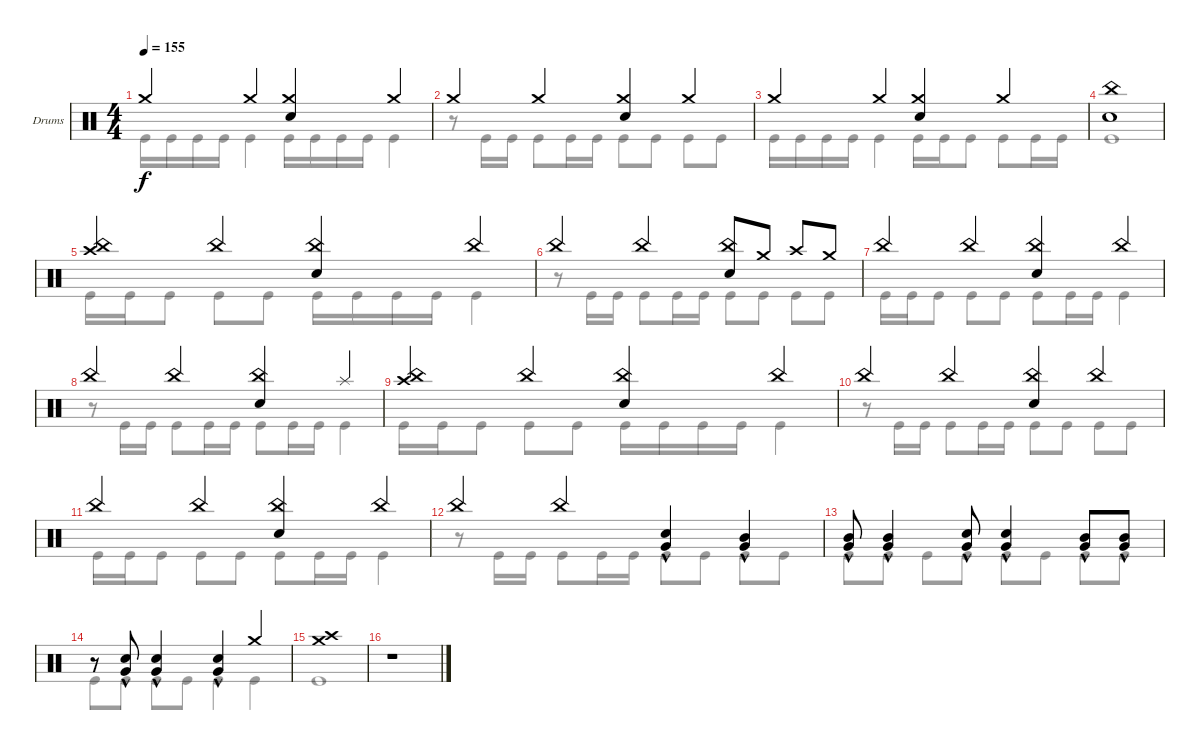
\defaultSystemsLayout 4
\bracketExtendMode groupsimilarinstruments
\firstSystemTrackNameOrientation horizontal
\otherSystemsTrackNameOrientation horizontal
\track ("Drumkit" "Drums") {instrument percussion}
\staff {score}
\articulation defaults
\voice
\ts (4 4)
\tempo 155
\clef neutral
\scale
1.02648
\ks c "Crash medium (hit)".4{dy f} "Crash medium (hit)".4
("Snare (hit) 2" "Crash medium (hit)").4 "Crash medium (hit)".4 |
\scale
0.973518 "Crash medium (hit)".4 "Crash medium (hit)".4 ("Snare (hit) 2" "Crash medium (hit)").4 "Crash medium (hit)".4 |
\scale
1.02648 "Crash medium (hit)".4 "Crash medium (hit)".4 ("Snare (hit) 2" "Crash medium (hit)").4 "Crash medium (hit)".4 |
\scale
0.973518 ("Snare (hit) 2" "China (hit)").1 |
\scale
1.02648 ("Crash high (hit)" "China (hit)").4 "China (hit)".4 ("China (hit)" "Snare (hit) 2").4 "China (hit)".4 |
\scale
0.973518 "China (hit)".4 "China (hit)".4 ("China (hit)" "Snare (hit) 2").8 "Crash medium (hit)".8 "Crash high (hit)".8 "Crash medium (hit)".8 |
\scale
1.02648 "China (hit)".4 "China (hit)".4 ("China (hit)" "Snare (hit) 2").4 "China (hit)".4 |
\scale
0.973518 "China (hit)".4 "China (hit)".4 ("China (hit)" "Snare (hit) 2").4 "Splash (hit)".4 |
\scale
1.02648 ("China (hit)" "Crash high (hit)").4 "China (hit)".4 ("China (hit)" "Snare (hit) 2").4 "China (hit)".4 |
\scale
0.973518 "China (hit)".4 "China (hit)".4 ("China (hit)" "Snare (hit) 2").4 "China (hit)".4 |
\scale
1.02648 "China (hit)".4 "China (hit)".4 ("China (hit)" "Snare (hit) 2").4 "China (hit)".4 |
\scale
0.973518 "China (hit)".4 "China (hit)".4 ("Snare (hit) 2" "Very Low Tom (hit)"{hac}).4 ("Mid Tom (hit)"{hac} "Very Low Tom (hit)"{hac}).4 |
\scale
1.02648 ("Mid Tom (hit)"{hac} "Very Low Tom (hit)"{hac}).8 ("Very Low Tom (hit)"{hac} "Mid Tom (hit)"{hac}).4 ("Snare (hit) 2" "Very Low Tom (hit)"{hac}).8 ("Snare (hit) 2" "Very Low Tom (hit)"{hac}).4 ("Mid Tom (hit)"{hac} "Very Low Tom (hit)"{hac}).8 ("Mid Tom (hit)"{hac} "Very Low Tom (hit)"{hac}).8 |
\scale
0.973518 r.8 ("Snare (hit) 2" "Very Low Tom (hit)"{hac}).8 ("Snare (hit) 2" "Very Low Tom (hit)"{hac}).4 ("Snare (hit) 2" "Very Low Tom (hit)"{hac}).4 "Crash medium (hit)".4 |
\scale
1.02648 ("Crash medium (hit)" "Crash high (hit)").1 |
\scale
0.973518 r.1
\voice
\clef neutral
\ottava regular
\simile none
\scale
1.02648
\ks c "Kick (hit)".16{dy f} "Kick (hit)".16 "Kick (hit)".16 "Kick (hit)".16 "Kick (hit)".4 "Kick (hit)".16 "Kick (hit)".16 "Kick (hit)".16 "Kick (hit)".16 "Kick (hit)".4
|
\scale
0.973518 r.8 "Kick (hit)".16 "Kick (hit)".16 "Kick (hit)".8 "Kick (hit)".16 "Kick (hit)".16 "Kick (hit)".8 "Kick (hit)".8 "Kick (hit)".8 "Kick (hit)".8 |
\scale
1.02648 "Kick (hit)".16 "Kick (hit)".16 "Kick (hit)".16 "Kick (hit)".16 "Kick (hit)".4 "Kick (hit)".16 "Kick (hit)".16 "Kick (hit)".8 "Kick (hit)".8 "Kick (hit)".16 "Kick (hit)".16 |
\scale
0.973518 "Kick (hit)".1 |
\scale
1.02648 "Kick (hit)".16 "Kick (hit)".16 "Kick (hit)".8 "Kick (hit)".8 "Kick (hit)".8 "Kick (hit)".16 "Kick (hit)".16 "Kick (hit)".16 "Kick (hit)".16 "Kick (hit)".4 |
\scale
0.973518 r.8 "Kick (hit)".16 "Kick (hit)".16 "Kick (hit)".8 "Kick (hit)".16 "Kick (hit)".16 "Kick (hit)".8 "Kick (hit)".8 "Kick (hit)".8 "Kick (hit)".8 |
\scale
1.02648 "Kick (hit)".16 "Kick (hit)".16 "Kick (hit)".8 "Kick (hit)".8 "Kick (hit)".8 "Kick (hit)".8 "Kick (hit)".16 "Kick (hit)".16 "Kick (hit)".4 |
\scale
0.973518 r.8 "Kick (hit)".16 "Kick (hit)".16 "Kick (hit)".8 "Kick (hit)".16 "Kick (hit)".16 "Kick (hit)".8 "Kick (hit)".16 "Kick (hit)".16 "Kick (hit)".4 |
\scale
1.02648 "Kick (hit)".16 "Kick (hit)".16 "Kick (hit)".8 "Kick (hit)".8 "Kick (hit)".8 "Kick (hit)".16 "Kick (hit)".16 "Kick (hit)".16 "Kick (hit)".16 "Kick (hit)".4 |
\scale
0.973518 r.8 "Kick (hit)".16 "Kick (hit)".16 "Kick (hit)".8 "Kick (hit)".16 "Kick (hit)".16 "Kick (hit)".8 "Kick (hit)".8 "Kick (hit)".8 "Kick (hit)".8 |
\scale
1.02648 "Kick (hit)".16 "Kick (hit)".16 "Kick (hit)".8 "Kick (hit)".8 "Kick (hit)".8 "Kick (hit)".8 "Kick (hit)".16 "Kick (hit)".16 "Kick (hit)".4 |
\scale
0.973518 r.8 "Kick (hit)".16 "Kick (hit)".16 "Kick (hit)".8 "Kick (hit)".16 "Kick (hit)".16 "Kick (hit)".8 "Kick (hit)".8 "Kick (hit)".8 "Kick (hit)".8 |
\scale
1.02648 "Kick (hit)".8 "Kick (hit)".8 "Kick (hit)".8 "Kick (hit)".8 "Kick (hit)".8 "Kick (hit)".8 "Kick (hit)".8 "Kick (hit)".8 |
\scale
0.973518 "Kick (hit)".8 "Kick (hit)".8 "Kick (hit)".8 "Kick (hit)".8 "Kick (hit)".4 "Kick (hit)".4 |
\scale
1.02648 "Kick (hit)".1 |
\scale
0.973518
